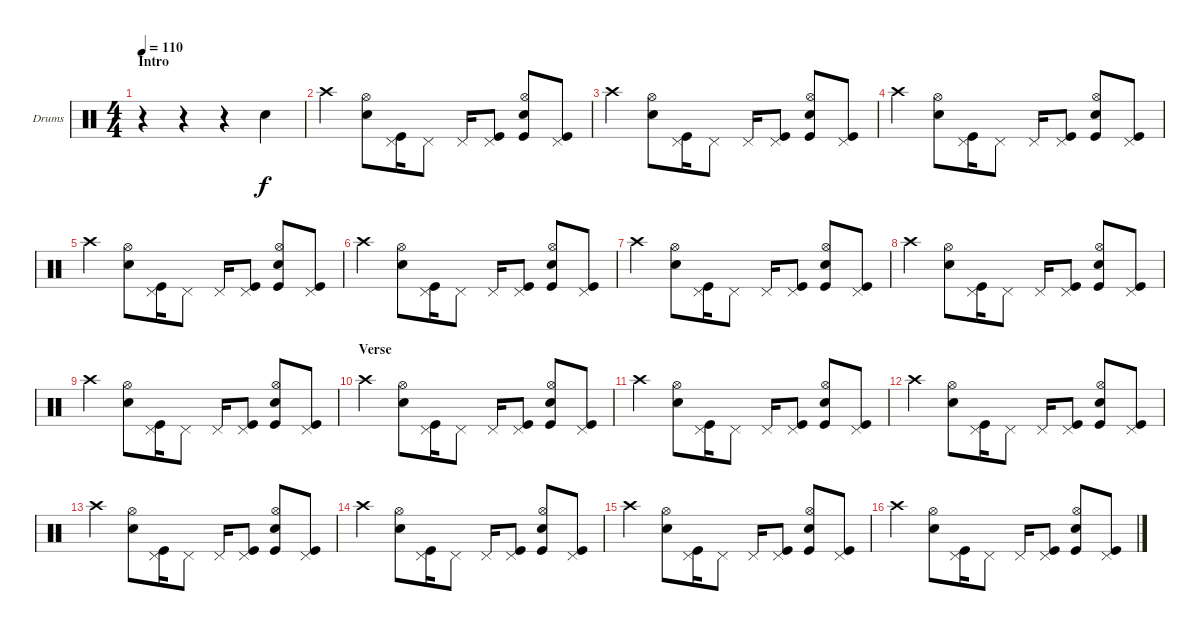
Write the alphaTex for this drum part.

\bracketExtendMode groupsimilarinstruments
\firstSystemTrackNameOrientation horizontal
\otherSystemsTrackNameOrientation horizontal
\track ("Drumkit" "Drums") {instrument percussion}
\staff {score}
\articulation defaults
\ts (4 4)
\section ("" "Intro")
\tempo 110
\clef neutral
\ks c
r.4{dy f} r.4 r.4 "Snare (hit) 2".4 |
"Crash high (hit)".4 ("Hi-Hat (open)" "Snare (hit) 2").8 ("Pedal Hi-Hat (hit)" "Kick (hit)").16 "Pedal Hi-Hat (hit)".8 "Pedal Hi-Hat (hit)".16 ("Pedal Hi-Hat (hit)" "Kick (hit)").8 ("Hi-Hat (open)" "Snare (hit) 2" "Kick (hit)").8 ("Pedal Hi-Hat (hit)" "Kick (hit)").8 |
"Crash high (hit)".4 ("Hi-Hat (open)" "Snare (hit) 2").8 ("Pedal Hi-Hat (hit)" "Kick (hit)").16 "Pedal Hi-Hat (hit)".8 "Pedal Hi-Hat (hit)".16 ("Pedal Hi-Hat (hit)" "Kick (hit)").8 ("Hi-Hat (open)" "Snare (hit) 2" "Kick (hit)").8 ("Pedal Hi-Hat (hit)" "Kick (hit)").8 |
"Crash high (hit)".4 ("Hi-Hat (open)" "Snare (hit) 2").8 ("Pedal Hi-Hat (hit)" "Kick (hit)").16 "Pedal Hi-Hat (hit)".8 "Pedal Hi-Hat (hit)".16 ("Pedal Hi-Hat (hit)" "Kick (hit)").8 ("Hi-Hat (open)" "Snare (hit) 2" "Kick (hit)").8 ("Pedal Hi-Hat (hit)" "Kick (hit)").8 |
"Crash high (hit)".4 ("Hi-Hat (open)" "Snare (hit) 2").8 ("Pedal Hi-Hat (hit)" "Kick (hit)").16 "Pedal Hi-Hat (hit)".8 "Pedal Hi-Hat (hit)".16 ("Pedal Hi-Hat (hit)" "Kick (hit)").8 ("Hi-Hat (open)" "Snare (hit) 2" "Kick (hit)").8 ("Pedal Hi-Hat (hit)" "Kick (hit)").8 |
"Crash high (hit)".4 ("Hi-Hat (open)" "Snare (hit) 2").8 ("Pedal Hi-Hat (hit)" "Kick (hit)").16 "Pedal Hi-Hat (hit)".8 "Pedal Hi-Hat (hit)".16 ("Pedal Hi-Hat (hit)" "Kick (hit)").8 ("Hi-Hat (open)" "Snare (hit) 2" "Kick (hit)").8 ("Pedal Hi-Hat (hit)" "Kick (hit)").8 |
"Crash high (hit)".4 ("Hi-Hat (open)" "Snare (hit) 2").8 ("Pedal Hi-Hat (hit)" "Kick (hit)").16 "Pedal Hi-Hat (hit)".8 "Pedal Hi-Hat (hit)".16 ("Pedal Hi-Hat (hit)" "Kick (hit)").8 ("Hi-Hat (open)" "Snare (hit) 2" "Kick (hit)").8 ("Pedal Hi-Hat (hit)" "Kick (hit)").8 |
"Crash high (hit)".4 ("Hi-Hat (open)" "Snare (hit) 2").8 ("Pedal Hi-Hat (hit)" "Kick (hit)").16 "Pedal Hi-Hat (hit)".8 "Pedal Hi-Hat (hit)".16 ("Pedal Hi-Hat (hit)" "Kick (hit)").8 ("Hi-Hat (open)" "Snare (hit) 2" "Kick (hit)").8 ("Pedal Hi-Hat (hit)" "Kick (hit)").8 |
"Crash high (hit)".4 ("Hi-Hat (open)" "Snare (hit) 2").8 ("Pedal Hi-Hat (hit)" "Kick (hit)").16 "Pedal Hi-Hat (hit)".8 "Pedal Hi-Hat (hit)".16 ("Pedal Hi-Hat (hit)" "Kick (hit)").8 ("Hi-Hat (open)" "Snare (hit) 2" "Kick (hit)").8 ("Pedal Hi-Hat (hit)" "Kick (hit)").8 |
\section ("" "Verse")
"Crash high (hit)".4 ("Hi-Hat (open)" "Snare (hit) 2").8 ("Pedal Hi-Hat (hit)" "Kick (hit)").16 "Pedal Hi-Hat (hit)".8 "Pedal Hi-Hat (hit)".16 ("Pedal Hi-Hat (hit)" "Kick (hit)").8 ("Hi-Hat (open)" "Snare (hit) 2" "Kick (hit)").8 ("Pedal Hi-Hat (hit)" "Kick (hit)").8 |
"Crash high (hit)".4 ("Hi-Hat (open)" "Snare (hit) 2").8 ("Pedal Hi-Hat (hit)" "Kick (hit)").16 "Pedal Hi-Hat (hit)".8 "Pedal Hi-Hat (hit)".16 ("Pedal Hi-Hat (hit)" "Kick (hit)").8 ("Hi-Hat (open)" "Snare (hit) 2" "Kick (hit)").8 ("Pedal Hi-Hat (hit)" "Kick (hit)").8 |
"Crash high (hit)".4 ("Hi-Hat (open)" "Snare (hit) 2").8 ("Pedal Hi-Hat (hit)" "Kick (hit)").16 "Pedal Hi-Hat (hit)".8 "Pedal Hi-Hat (hit)".16 ("Pedal Hi-Hat (hit)" "Kick (hit)").8 ("Hi-Hat (open)" "Snare (hit) 2" "Kick (hit)").8 ("Pedal Hi-Hat (hit)" "Kick (hit)").8 |
"Crash high (hit)".4 ("Hi-Hat (open)" "Snare (hit) 2").8 ("Pedal Hi-Hat (hit)" "Kick (hit)").16 "Pedal Hi-Hat (hit)".8 "Pedal Hi-Hat (hit)".16 ("Pedal Hi-Hat (hit)" "Kick (hit)").8 ("Hi-Hat (open)" "Snare (hit) 2" "Kick (hit)").8 ("Pedal Hi-Hat (hit)" "Kick (hit)").8 |
"Crash high (hit)".4 ("Hi-Hat (open)" "Snare (hit) 2").8 ("Pedal Hi-Hat (hit)" "Kick (hit)").16 "Pedal Hi-Hat (hit)".8 "Pedal Hi-Hat (hit)".16 ("Pedal Hi-Hat (hit)" "Kick (hit)").8 ("Hi-Hat (open)" "Snare (hit) 2" "Kick (hit)").8 ("Pedal Hi-Hat (hit)" "Kick (hit)").8 |
"Crash high (hit)".4 ("Hi-Hat (open)" "Snare (hit) 2").8 ("Pedal Hi-Hat (hit)" "Kick (hit)").16 "Pedal Hi-Hat (hit)".8 "Pedal Hi-Hat (hit)".16 ("Pedal Hi-Hat (hit)" "Kick (hit)").8 ("Hi-Hat (open)" "Snare (hit) 2" "Kick (hit)").8 ("Pedal Hi-Hat (hit)" "Kick (hit)").8 |
"Crash high (hit)".4 ("Hi-Hat (open)" "Snare (hit) 2").8 ("Pedal Hi-Hat (hit)" "Kick (hit)").16 "Pedal Hi-Hat (hit)".8 "Pedal Hi-Hat (hit)".16 ("Pedal Hi-Hat (hit)" "Kick (hit)").8 ("Hi-Hat (open)" "Snare (hit) 2" "Kick (hit)").8 ("Pedal Hi-Hat (hit)" "Kick (hit)").8
